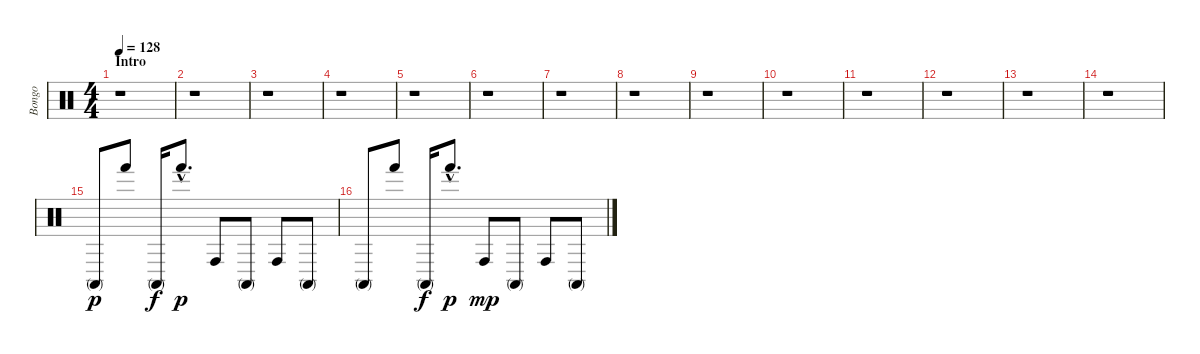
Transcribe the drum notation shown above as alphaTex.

\track ("Bongo" "Bongo") {instrument percussion}
\staff {score}
\articulation defaults
\ts (4 4)
\section ("" "Intro")
\tempo 128
\clef neutral
\ks c
r.1{dy p} |
r.1 |
r.1 |
r.1 |
r.1 |
r.1 |
r.1 |
r.1 |
r.1 |
r.1 |
r.1 |
r.1 |
r.1 |
r.1 |
"Conga high (mute)".8 "Hand (hit)".8 "Conga high (mute)".16{dy f} "Hand (hit)"{hac}.8{d dy p} "Conga high (hit)".8 "Conga high (mute)".8 "Conga high (hit)".8 "Conga high (mute)".8 |
"Conga high (mute)".8 "Hand (hit)".8 "Conga high (mute)".16{dy f} "Hand (hit)"{hac}.8{d dy p} "Conga high (hit)".8{dy mp} "Conga high (mute)".8 "Conga high (hit)".8 "Conga high (mute)".8
